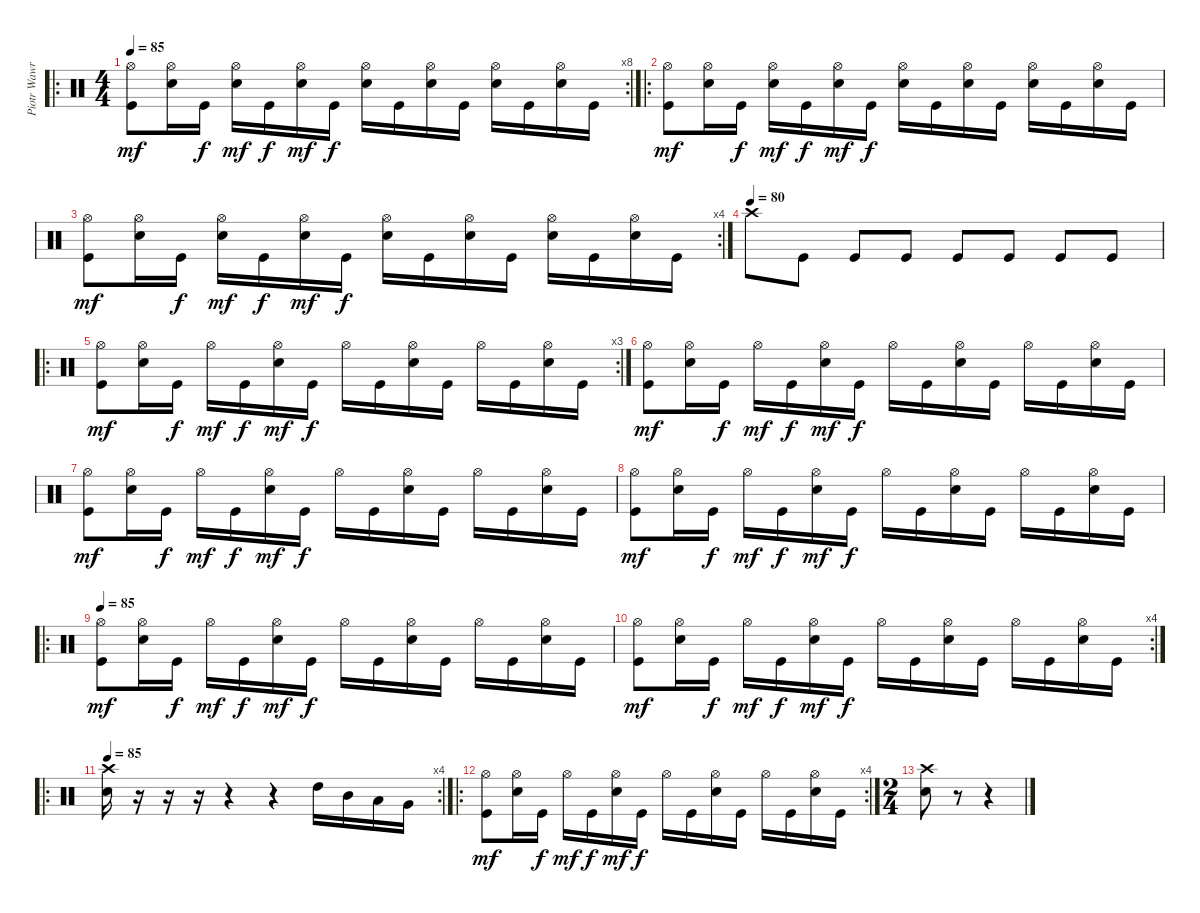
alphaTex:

\track ("Piotr Wawrzeniuk (Drums)" "Piotr Wawr") {instrument percussion}
\staff {score}
\articulation defaults
\ro
\rc 8
\ts (4 4)
\tempo 85
\clef neutral
\ks c
("Kick (hit)" "Hi-Hat (open)").8{dy mf} ("Electric Snare (hit)" "Hi-Hat (open)").16 "Kick (hit)".16{dy f} ("Electric Snare (hit)" "Hi-Hat (open)").16{dy mf} "Kick (hit)".16{dy f} ("Electric Snare (hit)" "Hi-Hat (open)").16{dy mf} "Kick (hit)".16{dy f} ("Electric Snare (hit)" "Hi-Hat (open)").16 "Kick (hit)".16 ("Electric Snare (hit)" "Hi-Hat (open)").16 "Kick (hit)".16 ("Electric Snare (hit)" "Hi-Hat (open)").16 "Kick (hit)".16 ("Electric Snare (hit)" "Hi-Hat (open)").16 "Kick (hit)".16 |
\ro
("Kick (hit)" "Hi-Hat (open)").8{dy mf} ("Electric Snare (hit)" "Hi-Hat (open)").16 "Kick (hit)".16{dy f} ("Electric Snare (hit)" "Hi-Hat (open)").16{dy mf} "Kick (hit)".16{dy f} ("Electric Snare (hit)" "Hi-Hat (open)").16{dy mf} "Kick (hit)".16{dy f} ("Electric Snare (hit)" "Hi-Hat (open)").16 "Kick (hit)".16 ("Electric Snare (hit)" "Hi-Hat (open)").16 "Kick (hit)".16 ("Electric Snare (hit)" "Hi-Hat (open)").16 "Kick (hit)".16 ("Electric Snare (hit)" "Hi-Hat (open)").16 "Kick (hit)".16 |
\rc 4
("Kick (hit)" "Hi-Hat (open)").8{dy mf} ("Electric Snare (hit)" "Hi-Hat (open)").16 "Kick (hit)".16{dy f} ("Electric Snare (hit)" "Hi-Hat (open)").16{dy mf} "Kick (hit)".16{dy f} ("Electric Snare (hit)" "Hi-Hat (open)").16{dy mf} "Kick (hit)".16{dy f} ("Electric Snare (hit)" "Hi-Hat (open)").16 "Kick (hit)".16 ("Electric Snare (hit)" "Hi-Hat (open)").16 "Kick (hit)".16 ("Electric Snare (hit)" "Hi-Hat (open)").16 "Kick (hit)".16 ("Electric Snare (hit)" "Hi-Hat (open)").16 "Kick (hit)".16 |
\tempo (80)
"Crash high (hit)".8 "Kick (hit)".8 "Kick (hit)".8 "Kick (hit)".8 "Kick (hit)".8 "Kick (hit)".8 "Kick (hit)".8 "Kick (hit)".8 |
\ro
\rc 3
("Kick (hit)" "Hi-Hat (open)").8{dy mf} ("Electric Snare (hit)" "Hi-Hat (open)").16 "Kick (hit)".16{dy f} "Hi-Hat (open)".16{dy mf} "Kick (hit)".16{dy f} ("Electric Snare (hit)" "Hi-Hat (open)").16{dy mf} "Kick (hit)".16{dy f} "Hi-Hat (open)".16 "Kick (hit)".16 ("Electric Snare (hit)" "Hi-Hat (open)").16 "Kick (hit)".16 "Hi-Hat (open)".16 "Kick (hit)".16 ("Electric Snare (hit)" "Hi-Hat (open)").16 "Kick (hit)".16 |
("Kick (hit)" "Hi-Hat (open)").8{dy mf} ("Electric Snare (hit)" "Hi-Hat (open)").16 "Kick (hit)".16{dy f} "Hi-Hat (open)".16{dy mf} "Kick (hit)".16{dy f} ("Electric Snare (hit)" "Hi-Hat (open)").16{dy mf} "Kick (hit)".16{dy f} "Hi-Hat (open)".16 "Kick (hit)".16 ("Electric Snare (hit)" "Hi-Hat (open)").16 "Kick (hit)".16 "Hi-Hat (open)".16 "Kick (hit)".16 ("Electric Snare (hit)" "Hi-Hat (open)").16 "Kick (hit)".16 |
("Kick (hit)" "Hi-Hat (open)").8{dy mf} ("Electric Snare (hit)" "Hi-Hat (open)").16 "Kick (hit)".16{dy f} "Hi-Hat (open)".16{dy mf} "Kick (hit)".16{dy f} ("Electric Snare (hit)" "Hi-Hat (open)").16{dy mf} "Kick (hit)".16{dy f} "Hi-Hat (open)".16 "Kick (hit)".16 ("Electric Snare (hit)" "Hi-Hat (open)").16 "Kick (hit)".16 "Hi-Hat (open)".16 "Kick (hit)".16 ("Electric Snare (hit)" "Hi-Hat (open)").16 "Kick (hit)".16 |
("Kick (hit)" "Hi-Hat (open)").8{dy mf} ("Electric Snare (hit)" "Hi-Hat (open)").16 "Kick (hit)".16{dy f} "Hi-Hat (open)".16{dy mf} "Kick (hit)".16{dy f} ("Electric Snare (hit)" "Hi-Hat (open)").16{dy mf} "Kick (hit)".16{dy f} "Hi-Hat (open)".16 "Kick (hit)".16 ("Electric Snare (hit)" "Hi-Hat (open)").16 "Kick (hit)".16 "Hi-Hat (open)".16 "Kick (hit)".16 ("Electric Snare (hit)" "Hi-Hat (open)").16 "Kick (hit)".16 |
\ro
\tempo 85
("Kick (hit)" "Hi-Hat (open)").8{dy mf} ("Electric Snare (hit)" "Hi-Hat (open)").16 "Kick (hit)".16{dy f} "Hi-Hat (open)".16{dy mf} "Kick (hit)".16{dy f} ("Electric Snare (hit)" "Hi-Hat (open)").16{dy mf} "Kick (hit)".16{dy f} "Hi-Hat (open)".16 "Kick (hit)".16 ("Electric Snare (hit)" "Hi-Hat (open)").16 "Kick (hit)".16 "Hi-Hat (open)".16 "Kick (hit)".16 ("Electric Snare (hit)" "Hi-Hat (open)").16 "Kick (hit)".16 |
\rc 4
("Kick (hit)" "Hi-Hat (open)").8{dy mf} ("Electric Snare (hit)" "Hi-Hat (open)").16 "Kick (hit)".16{dy f} "Hi-Hat (open)".16{dy mf} "Kick (hit)".16{dy f} ("Electric Snare (hit)" "Hi-Hat (open)").16{dy mf} "Kick (hit)".16{dy f} "Hi-Hat (open)".16 "Kick (hit)".16 ("Electric Snare (hit)" "Hi-Hat (open)").16 "Kick (hit)".16 "Hi-Hat (open)".16 "Kick (hit)".16 ("Electric Snare (hit)" "Hi-Hat (open)").16 "Kick (hit)".16 |
\ro
\rc 4
\tempo 85
("Crash high (hit)" "Electric Snare (hit)").16 r.16 r.16 r.16 r.4 r.4 "High Tom (hit)".16 "Mid Tom (hit)".16 "Low Tom (hit)".16 "Very Low Tom (hit)".16 |
\ro
\rc 4
("Kick (hit)" "Hi-Hat (open)").8{dy mf} ("Electric Snare (hit)" "Hi-Hat (open)").16 "Kick (hit)".16{dy f} "Hi-Hat (open)".16{dy mf} "Kick (hit)".16{dy f} ("Electric Snare (hit)" "Hi-Hat (open)").16{dy mf} "Kick (hit)".16{dy f} "Hi-Hat (open)".16 "Kick (hit)".16 ("Electric Snare (hit)" "Hi-Hat (open)").16 "Kick (hit)".16 "Hi-Hat (open)".16 "Kick (hit)".16 ("Electric Snare (hit)" "Hi-Hat (open)").16 "Kick (hit)".16 |
\ts (2 4)
("Crash high (hit)" "Electric Snare (hit)").8 r.8 r.4
